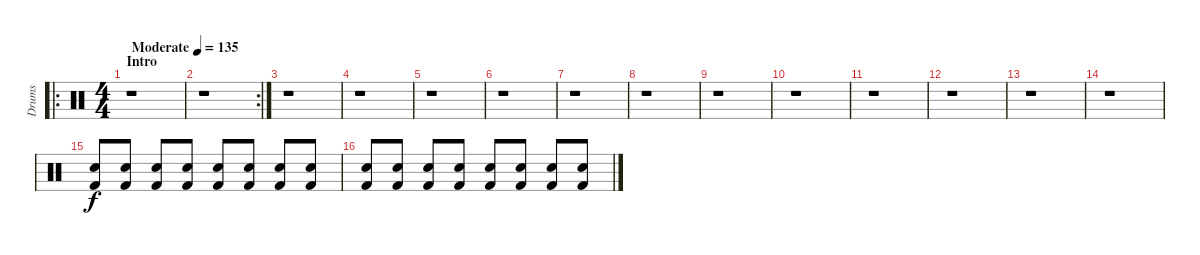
\track ("Drums" "Drums") {instrument percussion}
\staff {score}
\articulation defaults
\ro
\ts (4 4)
\section ("" "Intro")
\tempo (135 "Moderate")
\clef neutral
\ks c
r.1{dy f} |
\rc 2
r.1 |
r.1 |
r.1 |
r.1 |
r.1 |
r.1 |
r.1 |
r.1 |
r.1 |
r.1 |
r.1 |
r.1 |
r.1 |
("Snare (hit) 2" "Kick (hit) 2").8{volume 1} ("Snare (hit) 2" "Kick (hit) 2").8{volume 4} ("Snare (hit) 2" "Kick (hit) 2").8 ("Snare (hit) 2" "Kick (hit) 2").8 ("Snare (hit) 2" "Kick (hit) 2").8 ("Snare (hit) 2" "Kick (hit) 2").8 ("Snare (hit) 2" "Kick (hit) 2").8 ("Snare (hit) 2" "Kick (hit) 2").8 |
("Snare (hit) 2" "Kick (hit) 2").8 ("Snare (hit) 2" "Kick (hit) 2").8 ("Snare (hit) 2" "Kick (hit) 2").8 ("Snare (hit) 2" "Kick (hit) 2").8 ("Snare (hit) 2" "Kick (hit) 2").8 ("Snare (hit) 2" "Kick (hit) 2").8 ("Snare (hit) 2" "Kick (hit) 2").8 ("Snare (hit) 2" "Kick (hit) 2").8
